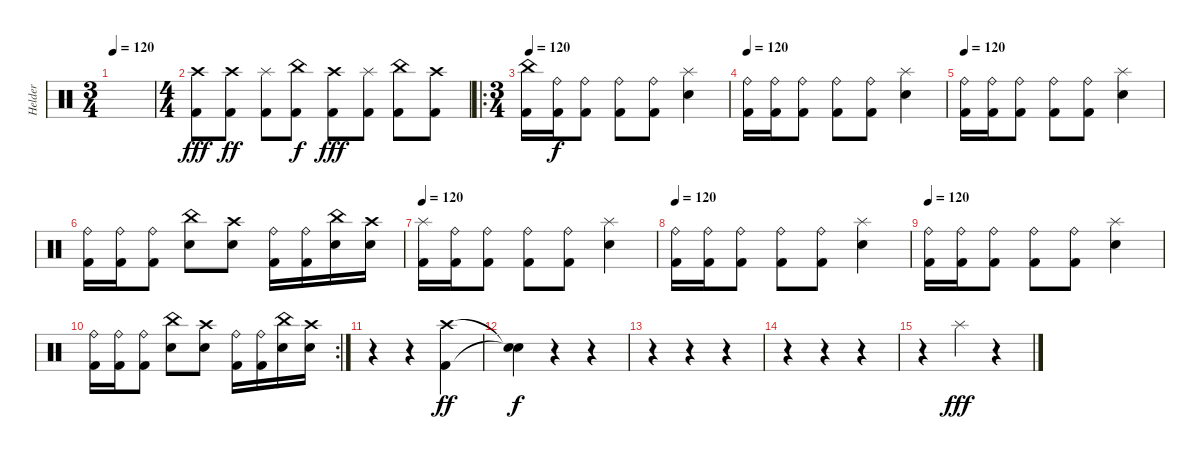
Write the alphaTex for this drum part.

\track ("Helder" "Helder") {instrument percussion}
\staff {score}
\articulation defaults
\ts (3 4)
\tempo 120
\clef neutral
\ks c
|
\ts (4 4)
("Crash high (hit)" "Kick (hit) 2").8{dy fff} ("Crash high (hit)" "Kick (hit) 2").8{dy ff} ("Splash (hit)" "Kick (hit) 2").8 ("China (hit)" "Kick (hit) 2").8{dy f} ("Kick (hit) 2" "Crash high (hit)").8{dy fff} ("Kick (hit) 2" "Splash (hit)").8 ("Kick (hit) 2" "China (hit)").8 ("Kick (hit) 2" "Crash high (hit)").8 |
\ro
\ts (3 4)
\tempo 120
("Kick (hit) 2" "China (hit)").16 ("Kick (hit) 2" "Ride (bell)").16{dy f} ("Kick (hit) 2" "Ride (bell)").8 ("Kick (hit) 2" "Ride (bell)").8 ("Kick (hit) 2" "Ride (bell)").8 ("Snare (hit) 2" "Splash (hit)").4 |
\tempo 120
("Kick (hit) 2" "Ride (bell)").16 ("Kick (hit) 2" "Ride (bell)").16 ("Kick (hit) 2" "Ride (bell)").8 ("Kick (hit) 2" "Ride (bell)").8 ("Kick (hit) 2" "Ride (bell)").8 ("Snare (hit) 2" "Splash (hit)").4 |
\tempo 120
("Kick (hit) 2" "Ride (bell)").16 ("Kick (hit) 2" "Ride (bell)").16 ("Kick (hit) 2" "Ride (bell)").8 ("Kick (hit) 2" "Ride (bell)").8 ("Kick (hit) 2" "Ride (bell)").8 ("Snare (hit) 2" "Splash (hit)").4 |
("Kick (hit) 2" "Ride (bell)").16 ("Kick (hit) 2" "Ride (bell)").16 ("Kick (hit) 2" "Ride (bell)").8 ("Snare (hit) 2" "China (hit)").8 ("Snare (hit) 2" "Crash high (hit)").8 ("Kick (hit) 2" "Ride (bell)").16 ("Kick (hit) 2" "Ride (bell)").16 ("Snare (hit) 2" "China (hit)").16 ("Snare (hit) 2" "Crash high (hit)").16 |
\tempo 120
("Kick (hit) 2" "Splash (hit)").16 ("Kick (hit) 2" "Ride (bell)").16 ("Kick (hit) 2" "Ride (bell)").8 ("Kick (hit) 2" "Ride (bell)").8 ("Kick (hit) 2" "Ride (bell)").8 ("Snare (hit) 2" "Splash (hit)").4 |
\tempo 120
("Kick (hit) 2" "Ride (bell)").16 ("Kick (hit) 2" "Ride (bell)").16 ("Kick (hit) 2" "Ride (bell)").8 ("Kick (hit) 2" "Ride (bell)").8 ("Kick (hit) 2" "Ride (bell)").8 ("Snare (hit) 2" "Splash (hit)").4 |
\tempo 120
("Kick (hit) 2" "Ride (bell)").16 ("Kick (hit) 2" "Ride (bell)").16 ("Kick (hit) 2" "Ride (bell)").8 ("Kick (hit) 2" "Ride (bell)").8 ("Kick (hit) 2" "Ride (bell)").8 ("Snare (hit) 2" "Splash (hit)").4 |
\rc 2
("Kick (hit) 2" "Ride (bell)").16 ("Kick (hit) 2" "Ride (bell)").16 ("Kick (hit) 2" "Ride (bell)").8 ("Snare (hit) 2" "China (hit)").8 ("Snare (hit) 2" "Crash high (hit)").8 ("Kick (hit) 2" "Ride (bell)").16 ("Kick (hit) 2" "Ride (bell)").16 ("Snare (hit) 2" "China (hit)").16 ("Snare (hit) 2" "Crash high (hit)").16 |
r.4 r.4 ("Crash high (hit)" "Kick (hit) 2").4{dy ff} |
("Snare (hit)"{t} "Snare (hit)"{t}).4{dy f} r.4 r.4 |
r.4 r.4 r.4 |
r.4 r.4 r.4 |
r.4 "Splash (hit)".4{dy fff} r.4
